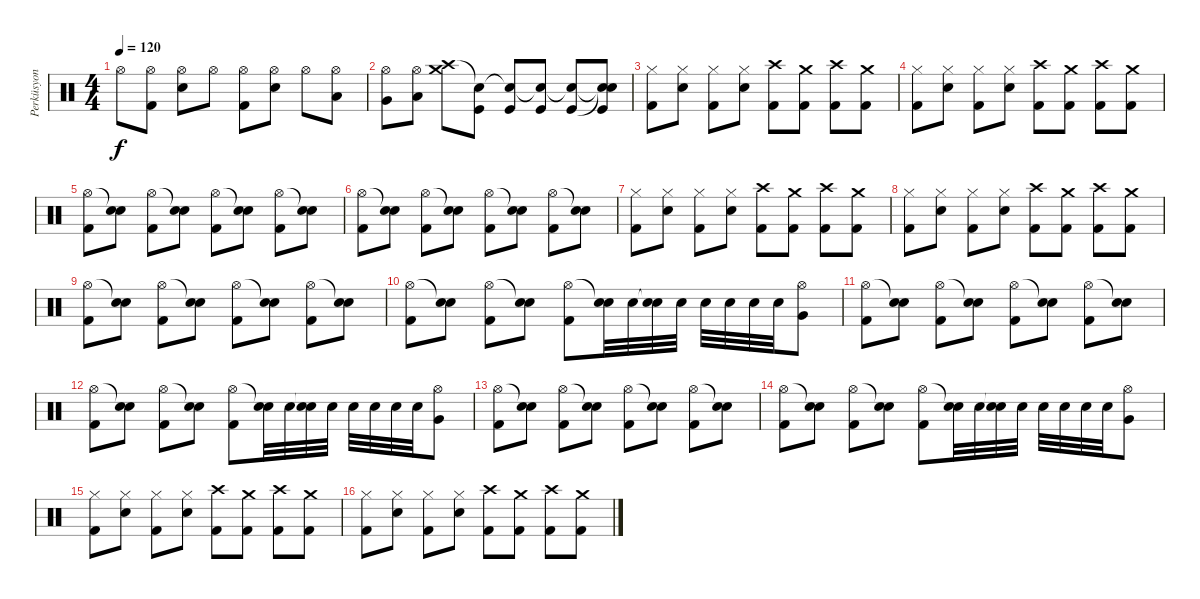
\track ("Perküsyon" "Perküsyon") {instrument percussion}
\staff {score}
\articulation defaults
\ts (4 4)
\tempo 120
\clef neutral
\ks c "Hi-Hat (open)".8{dy f}
("Hi-Hat (open)" "Kick (hit) 2").8 ("Hi-Hat (open)" "Electric Snare (hit)").8 "Hi-Hat (open)".8 ("Hi-Hat (open)" "Kick (hit) 2").8 ("Hi-Hat (open)" "Electric Snare (hit)").8 "Hi-Hat (open)".8 ("Hi-Hat (open)" "Low Tom (hit)").8 |
("Hi-Hat (open)" "Very Low Tom (hit)").8 ("Hi-Hat (open)" "Low Floor Tom (hit)").8 ("Crash high (hit)" "Crash medium (hit)").8 ("Snare (hit)"{t} "Kick (hit)").8 ("Snare (hit)"{t} "Kick (hit)").8 ("Snare (hit)"{t} "Kick (hit)").8 ("Snare (hit)"{t} "Kick (hit)").8 ("Snare (hit)"{t} "Snare (hit)"{t} "Kick (hit)").8 |
("Hi-Hat (closed)" "Kick (hit) 2").8 ("Hi-Hat (closed)" "Electric Snare (hit)").8 ("Hi-Hat (closed)" "Kick (hit) 2").8 ("Hi-Hat (closed)" "Electric Snare (hit)").8 ("Crash high (hit)" "Kick (hit) 2").8 ("Crash medium (hit)" "Kick (hit) 2").8 ("Crash high (hit)" "Kick (hit) 2").8 ("Crash medium (hit)" "Kick (hit) 2").8 |
("Hi-Hat (closed)" "Kick (hit) 2").8 ("Hi-Hat (closed)" "Electric Snare (hit)").8 ("Hi-Hat (closed)" "Kick (hit) 2").8 ("Hi-Hat (closed)" "Electric Snare (hit)").8 ("Crash high (hit)" "Kick (hit) 2").8 ("Crash medium (hit)" "Kick (hit) 2").8 ("Crash high (hit)" "Kick (hit) 2").8 ("Crash medium (hit)" "Kick (hit) 2").8 |
("Hi-Hat (open)" "Kick (hit) 2").8 ("Snare (hit)"{t} "Electric Snare (hit)").8 ("Hi-Hat (open)" "Kick (hit) 2").8 ("Snare (hit)"{t} "Electric Snare (hit)").8 ("Hi-Hat (open)" "Kick (hit) 2").8 ("Snare (hit)"{t} "Electric Snare (hit)").8 ("Hi-Hat (open)" "Kick (hit) 2").8 ("Snare (hit)"{t} "Electric Snare (hit)").8 |
("Hi-Hat (open)" "Kick (hit) 2").8 ("Snare (hit)"{t} "Electric Snare (hit)").8 ("Hi-Hat (open)" "Kick (hit) 2").8 ("Snare (hit)"{t} "Electric Snare (hit)").8 ("Hi-Hat (open)" "Kick (hit) 2").8 ("Snare (hit)"{t} "Electric Snare (hit)").8 ("Hi-Hat (open)" "Kick (hit) 2").8 ("Snare (hit)"{t} "Electric Snare (hit)").8 |
("Hi-Hat (closed)" "Kick (hit) 2").8 ("Hi-Hat (closed)" "Electric Snare (hit)").8 ("Hi-Hat (closed)" "Kick (hit) 2").8 ("Hi-Hat (closed)" "Electric Snare (hit)").8 ("Crash high (hit)" "Kick (hit) 2").8 ("Crash medium (hit)" "Kick (hit) 2").8 ("Crash high (hit)" "Kick (hit) 2").8 ("Crash medium (hit)" "Kick (hit) 2").8 |
("Hi-Hat (closed)" "Kick (hit) 2").8 ("Hi-Hat (closed)" "Electric Snare (hit)").8 ("Hi-Hat (closed)" "Kick (hit) 2").8 ("Hi-Hat (closed)" "Electric Snare (hit)").8 ("Crash high (hit)" "Kick (hit) 2").8 ("Crash medium (hit)" "Kick (hit) 2").8 ("Crash high (hit)" "Kick (hit) 2").8 ("Crash medium (hit)" "Kick (hit) 2").8 |
("Hi-Hat (open)" "Kick (hit) 2").8 ("Snare (hit)"{t} "Electric Snare (hit)").8 ("Hi-Hat (open)" "Kick (hit) 2").8 ("Snare (hit)"{t} "Electric Snare (hit)").8 ("Hi-Hat (open)" "Kick (hit) 2").8 ("Snare (hit)"{t} "Electric Snare (hit)").8 ("Hi-Hat (open)" "Kick (hit) 2").8 ("Snare (hit)"{t} "Electric Snare (hit)").8 |
("Hi-Hat (open)" "Kick (hit) 2").8 ("Snare (hit)"{t} "Electric Snare (hit)").8 ("Hi-Hat (open)" "Kick (hit) 2").8 ("Snare (hit)"{t} "Electric Snare (hit)").8 ("Hi-Hat (open)" "Kick (hit) 2").8 ("Snare (hit)"{t} "Electric Snare (hit)").32 "Electric Snare (hit)".32 ("Snare (hit)"{t} "Electric Snare (hit)").32 "Electric Snare (hit)".32 "Electric Snare (hit)".32 "Electric Snare (hit)".32 "Electric Snare (hit)".32 "Electric Snare (hit)".32 ("Hi-Hat (open)" "Very Low Tom (hit)").8 |
("Hi-Hat (open)" "Kick (hit) 2").8 ("Snare (hit)"{t} "Electric Snare (hit)").8 ("Hi-Hat (open)" "Kick (hit) 2").8 ("Snare (hit)"{t} "Electric Snare (hit)").8 ("Hi-Hat (open)" "Kick (hit) 2").8 ("Snare (hit)"{t} "Electric Snare (hit)").8 ("Hi-Hat (open)" "Kick (hit) 2").8 ("Snare (hit)"{t} "Electric Snare (hit)").8 |
("Hi-Hat (open)" "Kick (hit) 2").8 ("Snare (hit)"{t} "Electric Snare (hit)").8 ("Hi-Hat (open)" "Kick (hit) 2").8 ("Snare (hit)"{t} "Electric Snare (hit)").8 ("Hi-Hat (open)" "Kick (hit) 2").8 ("Snare (hit)"{t} "Electric Snare (hit)").32 "Electric Snare (hit)".32 ("Snare (hit)"{t} "Electric Snare (hit)").32 "Electric Snare (hit)".32 "Electric Snare (hit)".32 "Electric Snare (hit)".32 "Electric Snare (hit)".32 "Electric Snare (hit)".32 ("Hi-Hat (open)" "Very Low Tom (hit)").8 |
("Hi-Hat (open)" "Kick (hit) 2").8 ("Snare (hit)"{t} "Electric Snare (hit)").8 ("Hi-Hat (open)" "Kick (hit) 2").8 ("Snare (hit)"{t} "Electric Snare (hit)").8 ("Hi-Hat (open)" "Kick (hit) 2").8 ("Snare (hit)"{t} "Electric Snare (hit)").8 ("Hi-Hat (open)" "Kick (hit) 2").8 ("Snare (hit)"{t} "Electric Snare (hit)").8 |
("Hi-Hat (open)" "Kick (hit) 2").8 ("Snare (hit)"{t} "Electric Snare (hit)").8 ("Hi-Hat (open)" "Kick (hit) 2").8 ("Snare (hit)"{t} "Electric Snare (hit)").8 ("Hi-Hat (open)" "Kick (hit) 2").8 ("Snare (hit)"{t} "Electric Snare (hit)").32 "Electric Snare (hit)".32 ("Snare (hit)"{t} "Electric Snare (hit)").32 "Electric Snare (hit)".32 "Electric Snare (hit)".32 "Electric Snare (hit)".32 "Electric Snare (hit)".32 "Electric Snare (hit)".32 ("Hi-Hat (open)" "Very Low Tom (hit)").8 |
("Hi-Hat (closed)" "Kick (hit) 2").8 ("Hi-Hat (closed)" "Electric Snare (hit)").8 ("Hi-Hat (closed)" "Kick (hit) 2").8 ("Hi-Hat (closed)" "Electric Snare (hit)").8 ("Crash high (hit)" "Kick (hit) 2").8 ("Crash medium (hit)" "Kick (hit) 2").8 ("Crash high (hit)" "Kick (hit) 2").8 ("Crash medium (hit)" "Kick (hit) 2").8 |
("Hi-Hat (closed)" "Kick (hit) 2").8 ("Hi-Hat (closed)" "Electric Snare (hit)").8 ("Hi-Hat (closed)" "Kick (hit) 2").8 ("Hi-Hat (closed)" "Electric Snare (hit)").8 ("Crash high (hit)" "Kick (hit) 2").8 ("Crash medium (hit)" "Kick (hit) 2").8 ("Crash high (hit)" "Kick (hit) 2").8 ("Crash medium (hit)" "Kick (hit) 2").8
